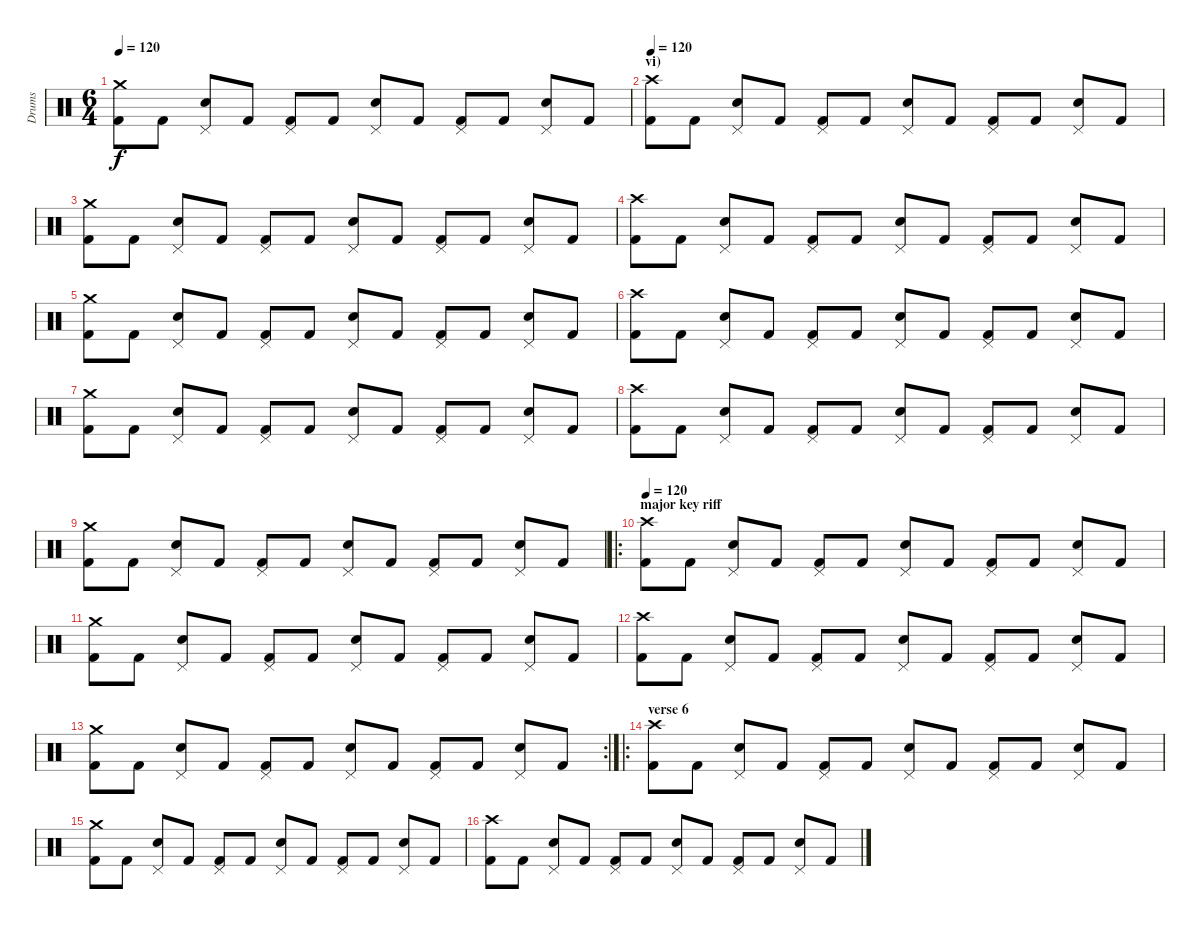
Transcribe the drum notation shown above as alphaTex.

\track ("Drums" "Drums") {instrument percussion}
\staff {score}
\articulation defaults
\ts (6 4)
\tempo 120
\clef neutral
\ks c
("Crash medium (hit)" "Kick (hit) 2").8{dy f} "Kick (hit) 2".8 ("Pedal Hi-Hat (hit)" "Snare (hit) 2").8 "Kick (hit) 2".8 ("Pedal Hi-Hat (hit)" "Kick (hit) 2").8 "Kick (hit) 2".8 ("Pedal Hi-Hat (hit)" "Snare (hit) 2").8 "Kick (hit) 2".8 ("Pedal Hi-Hat (hit)" "Kick (hit) 2").8 "Kick (hit) 2".8 ("Pedal Hi-Hat (hit)" "Snare (hit) 2").8 "Kick (hit) 2".8 |
\section ("" "vi)")
\tempo 120
("Crash high (hit)" "Kick (hit) 2").8 "Kick (hit) 2".8 ("Pedal Hi-Hat (hit)" "Snare (hit) 2").8 "Kick (hit) 2".8 ("Pedal Hi-Hat (hit)" "Kick (hit) 2").8 "Kick (hit) 2".8 ("Pedal Hi-Hat (hit)" "Snare (hit) 2").8 "Kick (hit) 2".8 ("Pedal Hi-Hat (hit)" "Kick (hit) 2").8 "Kick (hit) 2".8 ("Pedal Hi-Hat (hit)" "Snare (hit) 2").8 "Kick (hit) 2".8 |
("Crash medium (hit)" "Kick (hit) 2").8 "Kick (hit) 2".8 ("Pedal Hi-Hat (hit)" "Snare (hit) 2").8 "Kick (hit) 2".8 ("Pedal Hi-Hat (hit)" "Kick (hit) 2").8 "Kick (hit) 2".8 ("Pedal Hi-Hat (hit)" "Snare (hit) 2").8 "Kick (hit) 2".8 ("Pedal Hi-Hat (hit)" "Kick (hit) 2").8 "Kick (hit) 2".8 ("Pedal Hi-Hat (hit)" "Snare (hit) 2").8 "Kick (hit) 2".8 |
("Crash high (hit)" "Kick (hit) 2").8 "Kick (hit) 2".8 ("Pedal Hi-Hat (hit)" "Snare (hit) 2").8 "Kick (hit) 2".8 ("Pedal Hi-Hat (hit)" "Kick (hit) 2").8 "Kick (hit) 2".8 ("Pedal Hi-Hat (hit)" "Snare (hit) 2").8 "Kick (hit) 2".8 ("Pedal Hi-Hat (hit)" "Kick (hit) 2").8 "Kick (hit) 2".8 ("Pedal Hi-Hat (hit)" "Snare (hit) 2").8 "Kick (hit) 2".8 |
("Crash medium (hit)" "Kick (hit) 2").8 "Kick (hit) 2".8 ("Pedal Hi-Hat (hit)" "Snare (hit) 2").8 "Kick (hit) 2".8 ("Pedal Hi-Hat (hit)" "Kick (hit) 2").8 "Kick (hit) 2".8 ("Pedal Hi-Hat (hit)" "Snare (hit) 2").8 "Kick (hit) 2".8 ("Pedal Hi-Hat (hit)" "Kick (hit) 2").8 "Kick (hit) 2".8 ("Pedal Hi-Hat (hit)" "Snare (hit) 2").8 "Kick (hit) 2".8 |
("Crash high (hit)" "Kick (hit) 2").8 "Kick (hit) 2".8 ("Pedal Hi-Hat (hit)" "Snare (hit) 2").8 "Kick (hit) 2".8 ("Pedal Hi-Hat (hit)" "Kick (hit) 2").8 "Kick (hit) 2".8 ("Pedal Hi-Hat (hit)" "Snare (hit) 2").8 "Kick (hit) 2".8 ("Pedal Hi-Hat (hit)" "Kick (hit) 2").8 "Kick (hit) 2".8 ("Pedal Hi-Hat (hit)" "Snare (hit) 2").8 "Kick (hit) 2".8 |
("Crash medium (hit)" "Kick (hit) 2").8 "Kick (hit) 2".8 ("Pedal Hi-Hat (hit)" "Snare (hit) 2").8 "Kick (hit) 2".8 ("Pedal Hi-Hat (hit)" "Kick (hit) 2").8 "Kick (hit) 2".8 ("Pedal Hi-Hat (hit)" "Snare (hit) 2").8 "Kick (hit) 2".8 ("Pedal Hi-Hat (hit)" "Kick (hit) 2").8 "Kick (hit) 2".8 ("Pedal Hi-Hat (hit)" "Snare (hit) 2").8 "Kick (hit) 2".8 |
("Crash high (hit)" "Kick (hit) 2").8 "Kick (hit) 2".8 ("Pedal Hi-Hat (hit)" "Snare (hit) 2").8 "Kick (hit) 2".8 ("Pedal Hi-Hat (hit)" "Kick (hit) 2").8 "Kick (hit) 2".8 ("Pedal Hi-Hat (hit)" "Snare (hit) 2").8 "Kick (hit) 2".8 ("Pedal Hi-Hat (hit)" "Kick (hit) 2").8 "Kick (hit) 2".8 ("Pedal Hi-Hat (hit)" "Snare (hit) 2").8 "Kick (hit) 2".8 |
("Crash medium (hit)" "Kick (hit) 2").8 "Kick (hit) 2".8 ("Pedal Hi-Hat (hit)" "Snare (hit) 2").8 "Kick (hit) 2".8 ("Pedal Hi-Hat (hit)" "Kick (hit) 2").8 "Kick (hit) 2".8 ("Pedal Hi-Hat (hit)" "Snare (hit) 2").8 "Kick (hit) 2".8 ("Pedal Hi-Hat (hit)" "Kick (hit) 2").8 "Kick (hit) 2".8 ("Pedal Hi-Hat (hit)" "Snare (hit) 2").8 "Kick (hit) 2".8 |
\ro
\section ("" "major key riff")
\tempo 120
("Crash high (hit)" "Kick (hit) 2").8 "Kick (hit) 2".8 ("Pedal Hi-Hat (hit)" "Snare (hit) 2").8 "Kick (hit) 2".8 ("Pedal Hi-Hat (hit)" "Kick (hit) 2").8 "Kick (hit) 2".8 ("Pedal Hi-Hat (hit)" "Snare (hit) 2").8 "Kick (hit) 2".8 ("Pedal Hi-Hat (hit)" "Kick (hit) 2").8 "Kick (hit) 2".8 ("Pedal Hi-Hat (hit)" "Snare (hit) 2").8 "Kick (hit) 2".8 |
("Crash medium (hit)" "Kick (hit) 2").8 "Kick (hit) 2".8 ("Pedal Hi-Hat (hit)" "Snare (hit) 2").8 "Kick (hit) 2".8 ("Pedal Hi-Hat (hit)" "Kick (hit) 2").8 "Kick (hit) 2".8 ("Pedal Hi-Hat (hit)" "Snare (hit) 2").8 "Kick (hit) 2".8 ("Pedal Hi-Hat (hit)" "Kick (hit) 2").8 "Kick (hit) 2".8 ("Pedal Hi-Hat (hit)" "Snare (hit) 2").8 "Kick (hit) 2".8 |
("Crash high (hit)" "Kick (hit) 2").8 "Kick (hit) 2".8 ("Pedal Hi-Hat (hit)" "Snare (hit) 2").8 "Kick (hit) 2".8 ("Pedal Hi-Hat (hit)" "Kick (hit) 2").8 "Kick (hit) 2".8 ("Pedal Hi-Hat (hit)" "Snare (hit) 2").8 "Kick (hit) 2".8 ("Pedal Hi-Hat (hit)" "Kick (hit) 2").8 "Kick (hit) 2".8 ("Pedal Hi-Hat (hit)" "Snare (hit) 2").8 "Kick (hit) 2".8 |
\rc 2
("Crash medium (hit)" "Kick (hit) 2").8 "Kick (hit) 2".8 ("Pedal Hi-Hat (hit)" "Snare (hit) 2").8 "Kick (hit) 2".8 ("Pedal Hi-Hat (hit)" "Kick (hit) 2").8 "Kick (hit) 2".8 ("Pedal Hi-Hat (hit)" "Snare (hit) 2").8 "Kick (hit) 2".8 ("Pedal Hi-Hat (hit)" "Kick (hit) 2").8 "Kick (hit) 2".8 ("Pedal Hi-Hat (hit)" "Snare (hit) 2").8 "Kick (hit) 2".8 |
\ro
\section ("" "verse 6")
("Crash high (hit)" "Kick (hit) 2").8 "Kick (hit) 2".8 ("Pedal Hi-Hat (hit)" "Snare (hit) 2").8 "Kick (hit) 2".8 ("Pedal Hi-Hat (hit)" "Kick (hit) 2").8 "Kick (hit) 2".8 ("Pedal Hi-Hat (hit)" "Snare (hit) 2").8 "Kick (hit) 2".8 ("Pedal Hi-Hat (hit)" "Kick (hit) 2").8 "Kick (hit) 2".8 ("Pedal Hi-Hat (hit)" "Snare (hit) 2").8 "Kick (hit) 2".8 |
("Crash medium (hit)" "Kick (hit) 2").8 "Kick (hit) 2".8 ("Pedal Hi-Hat (hit)" "Snare (hit) 2").8 "Kick (hit) 2".8 ("Pedal Hi-Hat (hit)" "Kick (hit) 2").8 "Kick (hit) 2".8 ("Pedal Hi-Hat (hit)" "Snare (hit) 2").8 "Kick (hit) 2".8 ("Pedal Hi-Hat (hit)" "Kick (hit) 2").8 "Kick (hit) 2".8 ("Pedal Hi-Hat (hit)" "Snare (hit) 2").8 "Kick (hit) 2".8 |
("Crash high (hit)" "Kick (hit) 2").8 "Kick (hit) 2".8 ("Pedal Hi-Hat (hit)" "Snare (hit) 2").8 "Kick (hit) 2".8 ("Pedal Hi-Hat (hit)" "Kick (hit) 2").8 "Kick (hit) 2".8 ("Pedal Hi-Hat (hit)" "Snare (hit) 2").8 "Kick (hit) 2".8 ("Pedal Hi-Hat (hit)" "Kick (hit) 2").8 "Kick (hit) 2".8 ("Pedal Hi-Hat (hit)" "Snare (hit) 2").8 "Kick (hit) 2".8
